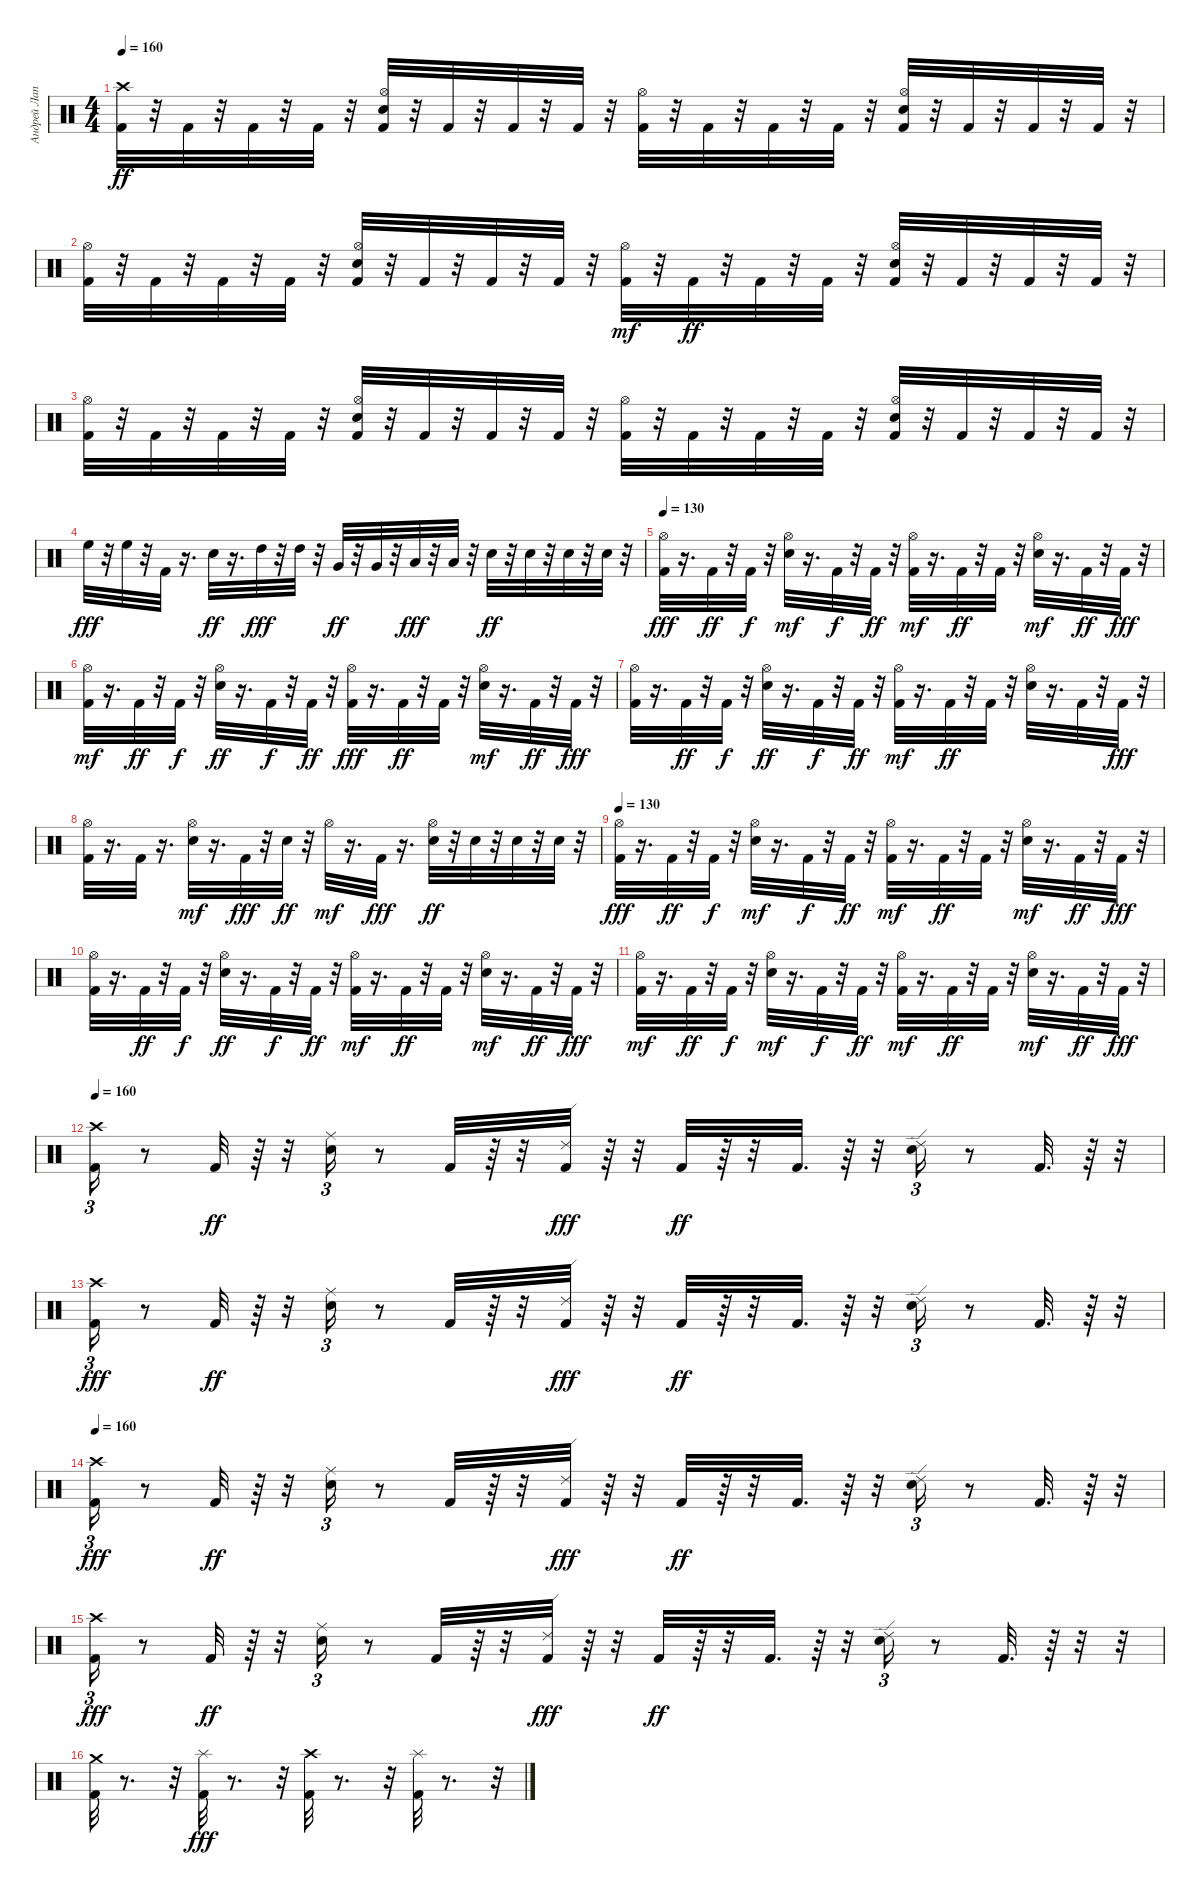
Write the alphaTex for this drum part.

\track ("Андрей Лаптев" "Андрей Лап") {instrument percussion}
\staff {score}
\articulation defaults
\ts (4 4)
\tempo 160
\clef neutral
\ks c
("Crash high (hit)" "Kick (hit) 2").32{dy ff} r.32 "Kick (hit) 2".32 r.32 "Kick (hit) 2".32 r.32 "Kick (hit) 2".32 r.32 ("Kick (hit) 2" "Hi-Hat (open)" "Electric Snare (hit)").32 r.32 "Kick (hit) 2".32 r.32 "Kick (hit) 2".32 r.32 "Kick (hit) 2".32 r.32 ("Hi-Hat (open)" "Kick (hit) 2").32 r.32 "Kick (hit) 2".32 r.32 "Kick (hit) 2".32 r.32 "Kick (hit) 2".32 r.32 ("Hi-Hat (open)" "Electric Snare (hit)" "Kick (hit) 2").32 r.32 "Kick (hit) 2".32 r.32 "Kick (hit) 2".32 r.32 "Kick (hit) 2".32 r.32 |
("Hi-Hat (open)" "Kick (hit) 2").32 r.32 "Kick (hit) 2".32 r.32 "Kick (hit) 2".32 r.32 "Kick (hit) 2".32 r.32 ("Electric Snare (hit)" "Hi-Hat (open)" "Kick (hit) 2").32 r.32 "Kick (hit) 2".32 r.32 "Kick (hit) 2".32 r.32 "Kick (hit) 2".32 r.32 ("Kick (hit) 2" "Hi-Hat (open)").32{dy mf} r.32 "Kick (hit) 2".32{dy ff} r.32 "Kick (hit) 2".32 r.32 "Kick (hit) 2".32 r.32 ("Hi-Hat (open)" "Kick (hit) 2" "Electric Snare (hit)").32 r.32 "Kick (hit) 2".32 r.32 "Kick (hit) 2".32 r.32 "Kick (hit) 2".32 r.32 |
("Hi-Hat (open)" "Kick (hit) 2").32 r.32 "Kick (hit) 2".32 r.32 "Kick (hit) 2".32 r.32 "Kick (hit) 2".32 r.32 ("Hi-Hat (open)" "Electric Snare (hit)" "Kick (hit) 2").32 r.32 "Kick (hit) 2".32 r.32 "Kick (hit) 2".32 r.32 "Kick (hit) 2".32 r.32 ("Hi-Hat (open)" "Kick (hit) 2").32 r.32 "Kick (hit) 2".32 r.32 "Kick (hit) 2".32 r.32 "Kick (hit) 2".32 r.32 ("Hi-Hat (open)" "Electric Snare (hit)" "Kick (hit) 2").32 r.32 "Kick (hit) 2".32 r.32 "Kick (hit) 2".32 r.32 "Kick (hit) 2".32 r.32 |
"High Floor Tom (hit)".32{dy fff} r.32 "High Floor Tom (hit)".32 r.32 "Kick (hit) 2".32 r.16{d} "Electric Snare (hit)".32{dy ff} r.16{d} "High Tom (hit)".32{dy fff} r.32 "High Tom (hit)".32 r.32 "Very Low Tom (hit)".32{dy ff} r.32 "Very Low Tom (hit)".32 r.32 "Low Tom (hit)".32{dy fff} r.32 "Low Tom (hit)".32 r.32 "Electric Snare (hit)".32{dy ff} r.32 "Electric Snare (hit)".32 r.32 "Electric Snare (hit)".32 r.32 "Electric Snare (hit)".32 r.32 |
\tempo 130
("Hi-Hat (open)" "Kick (hit) 2").32{dy fff} r.16{d} "Kick (hit) 2".32{dy ff} r.32 "Kick (hit) 2".32{dy f} r.32 ("Electric Snare (hit)" "Hi-Hat (open)").32{dy mf} r.16{d} "Kick (hit) 2".32{dy f} r.32 "Kick (hit) 2".32{dy ff} r.32 ("Kick (hit) 2" "Hi-Hat (open)").32{dy mf} r.16{d} "Kick (hit) 2".32{dy ff} r.32 "Kick (hit) 2".32 r.32 ("Electric Snare (hit)" "Hi-Hat (open)").32{dy mf} r.16{d} "Kick (hit) 2".32{dy ff} r.32 "Kick (hit) 2".32{dy fff} r.32 |
("Kick (hit) 2" "Hi-Hat (open)").32{dy mf} r.16{d} "Kick (hit) 2".32{dy ff} r.32 "Kick (hit) 2".32{dy f} r.32 ("Hi-Hat (open)" "Electric Snare (hit)").32{dy ff} r.16{d} "Kick (hit) 2".32{dy f} r.32 "Kick (hit) 2".32{dy ff} r.32 ("Hi-Hat (open)" "Kick (hit) 2").32{dy fff} r.16{d} "Kick (hit) 2".32{dy ff} r.32 "Kick (hit) 2".32 r.32 ("Electric Snare (hit)" "Hi-Hat (open)").32{dy mf} r.16{d} "Kick (hit) 2".32{dy ff} r.32 "Kick (hit) 2".32{dy fff} r.32 |
("Hi-Hat (open)" "Kick (hit) 2").32 r.16{d} "Kick (hit) 2".32{dy ff} r.32 "Kick (hit) 2".32{dy f} r.32 ("Hi-Hat (open)" "Electric Snare (hit)").32{dy ff} r.16{d} "Kick (hit) 2".32{dy f} r.32 "Kick (hit) 2".32{dy ff} r.32 ("Kick (hit) 2" "Hi-Hat (open)").32{dy mf} r.16{d} "Kick (hit) 2".32{dy ff} r.32 "Kick (hit) 2".32 r.32 ("Hi-Hat (open)" "Electric Snare (hit)").32 r.16{d} "Kick (hit) 2".32 r.32 "Kick (hit) 2".32{dy fff} r.32 |
("Hi-Hat (open)" "Kick (hit) 2").32 r.16{d} "Kick (hit) 2".32 r.16{d} ("Electric Snare (hit)" "Hi-Hat (open)").32{dy mf} r.16{d} "Kick (hit) 2".32{dy fff} r.32 "Electric Snare (hit)".32{dy ff} r.32 "Hi-Hat (open)".32{dy mf} r.16{d} "Kick (hit) 2".32{dy fff} r.16{d} ("Hi-Hat (open)" "Electric Snare (hit)").32{dy ff} r.32 "Electric Snare (hit)".32 r.32 "Electric Snare (hit)".32 r.32 "Electric Snare (hit)".32 r.32 |
\tempo 130
("Hi-Hat (open)" "Kick (hit) 2").32{dy fff} r.16{d} "Kick (hit) 2".32{dy ff} r.32 "Kick (hit) 2".32{dy f} r.32 ("Electric Snare (hit)" "Hi-Hat (open)").32{dy mf} r.16{d} "Kick (hit) 2".32{dy f} r.32 "Kick (hit) 2".32{dy ff} r.32 ("Kick (hit) 2" "Hi-Hat (open)").32{dy mf} r.16{d} "Kick (hit) 2".32{dy ff} r.32 "Kick (hit) 2".32 r.32 ("Electric Snare (hit)" "Hi-Hat (open)").32{dy mf} r.16{d} "Kick (hit) 2".32{dy ff} r.32 "Kick (hit) 2".32{dy fff} r.32 |
("Hi-Hat (open)" "Kick (hit) 2").32 r.16{d} "Kick (hit) 2".32{dy ff} r.32 "Kick (hit) 2".32{dy f} r.32 ("Hi-Hat (open)" "Electric Snare (hit)").32{dy ff} r.16{d} "Kick (hit) 2".32{dy f} r.32 "Kick (hit) 2".32{dy ff} r.32 ("Kick (hit) 2" "Hi-Hat (open)").32{dy mf} r.16{d} "Kick (hit) 2".32{dy ff} r.32 "Kick (hit) 2".32 r.32 ("Electric Snare (hit)" "Hi-Hat (open)").32{dy mf} r.16{d} "Kick (hit) 2".32{dy ff} r.32 "Kick (hit) 2".32{dy fff} r.32 |
("Kick (hit) 2" "Hi-Hat (open)").32{dy mf} r.16{d} "Kick (hit) 2".32{dy ff} r.32 "Kick (hit) 2".32{dy f} r.32 ("Electric Snare (hit)" "Hi-Hat (open)").32{dy mf} r.16{d} "Kick (hit) 2".32{dy f} r.32 "Kick (hit) 2".32{dy ff} r.32 ("Kick (hit) 2" "Hi-Hat (open)").32{dy mf} r.16{d} "Kick (hit) 2".32{dy ff} r.32 "Kick (hit) 2".32 r.32 ("Electric Snare (hit)" "Hi-Hat (open)").32{dy mf} r.16{d} "Kick (hit) 2".32{dy ff} r.32 "Kick (hit) 2".32{dy fff} r.32 |
\tempo 160
("Crash high (hit)" "Kick (hit) 2").16{tu (3 2)} r.8 "Kick (hit) 2".32{dy ff} r.64 r.32 ("Ride (middle)" "Electric Snare (hit)").16{tu (3 2)} r.8 "Kick (hit) 2".32 r.64 r.32 ("Kick (hit) 2" "Ride (edge) 2").32{dy fff} r.64 r.32 "Kick (hit) 2".32{dy ff} r.64 r.32 "Kick (hit) 2".32{d} r.64 r.32 ("Ride (edge) 2" "Electric Snare (hit)").16{tu (3 2)} r.8 "Kick (hit) 2".32{d} r.64 r.32 |
("Crash high (hit)" "Kick (hit) 2").16{tu (3 2) dy fff} r.8 "Kick (hit) 2".32{dy ff} r.64 r.32 ("Ride (middle)" "Electric Snare (hit)").16{tu (3 2)} r.8 "Kick (hit) 2".32 r.64 r.32 ("Kick (hit) 2" "Ride (edge) 2").32{dy fff} r.64 r.32 "Kick (hit) 2".32{dy ff} r.64 r.32 "Kick (hit) 2".32{d} r.64 r.32 ("Ride (edge) 2" "Electric Snare (hit)").16{tu (3 2)} r.8 "Kick (hit) 2".32{d} r.64 r.32 |
\tempo 160
("Crash high (hit)" "Kick (hit) 2").16{tu (3 2) dy fff} r.8 "Kick (hit) 2".32{dy ff} r.64 r.32 ("Ride (middle)" "Electric Snare (hit)").16{tu (3 2)} r.8 "Kick (hit) 2".32 r.64 r.32 ("Kick (hit) 2" "Ride (edge) 2").32{dy fff} r.64 r.32 "Kick (hit) 2".32{dy ff} r.64 r.32 "Kick (hit) 2".32{d} r.64 r.32 ("Ride (edge) 2" "Electric Snare (hit)").16{tu (3 2)} r.8 "Kick (hit) 2".32{d} r.64 r.32 |
("Crash high (hit)" "Kick (hit) 2").16{tu (3 2) dy fff} r.8 "Kick (hit) 2".32{dy ff} r.64 r.32 ("Ride (middle)" "Electric Snare (hit)").16{tu (3 2)} r.8 "Kick (hit) 2".32 r.64 r.32 ("Kick (hit) 2" "Ride (edge) 2").32{dy fff} r.64 r.32 "Kick (hit) 2".32{dy ff} r.64 r.32 "Kick (hit) 2".32{d} r.64 r.32 ("Ride (edge) 2" "Electric Snare (hit)").16{tu (3 2)} r.8 "Kick (hit) 2".32{d} r.64 r.32 r.32 |
("Crash medium (hit)" "Kick (hit) 2").32 r.8{d} r.32 ("Splash (hit)" "Kick (hit) 2").32{dy fff} r.8{d} r.32 ("Crash high (hit)" "Kick (hit) 2").32 r.8{d} r.32 ("Kick (hit) 2" "Splash (hit)").32 r.8{d} r.32
